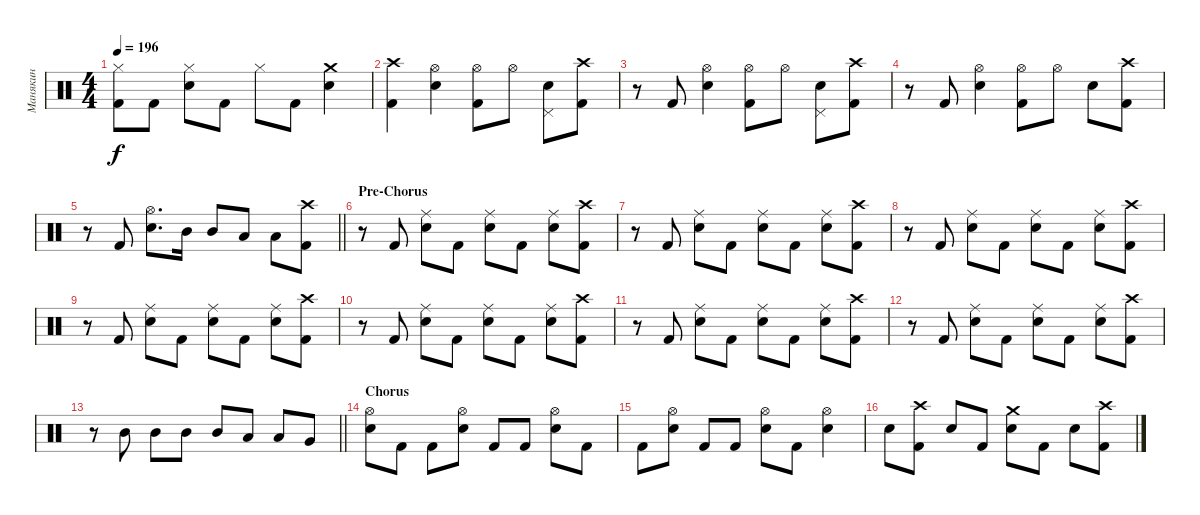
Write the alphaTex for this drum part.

\track ("Манякин" "Манякин") {instrument percussion}
\staff {score}
\articulation defaults
\ts (4 4)
\tempo 196
\clef neutral
\ks c
("Hi-Hat (closed)" "Kick (hit) 2").8{dy f} "Kick (hit) 2".8 ("Hi-Hat (closed)" "Electric Snare (hit)").8 "Kick (hit) 2".8 "Hi-Hat (closed)".8 "Kick (hit) 2".8 ("Crash medium (hit)" "Electric Snare (hit)").4 |
("Crash high (hit)" "Kick (hit) 2").4 ("Hi-Hat (open)" "Electric Snare (hit)").4 ("Hi-Hat (open)" "Kick (hit) 2").8 "Hi-Hat (open)".8 ("Electric Snare (hit)" "Pedal Hi-Hat (hit)").8 ("Crash high (hit)" "Kick (hit) 2").8 |
r.8 "Kick (hit) 2".8 ("Hi-Hat (open)" "Electric Snare (hit)").4 ("Hi-Hat (open)" "Kick (hit) 2").8 "Hi-Hat (open)".8 ("Electric Snare (hit)" "Pedal Hi-Hat (hit)").8 ("Crash high (hit)" "Kick (hit) 2").8 |
r.8 "Kick (hit) 2".8 ("Hi-Hat (open)" "Electric Snare (hit)").4 ("Hi-Hat (open)" "Kick (hit) 2").8 "Hi-Hat (open)".8 "Electric Snare (hit)".8 ("Crash high (hit)" "Kick (hit) 2").8 |
\barLineRight lightlight
r.8 "Kick (hit) 2".8 ("Hi-Hat (open)" "Electric Snare (hit)").8{d} "Mid Tom (hit)".16 "Mid Tom (hit)".8 "Low Tom (hit)".8 "Low Tom (hit)".8 ("Crash high (hit)" "Kick (hit) 2").8 |
\section ("" "Pre-Chorus")
r.8 "Kick (hit) 2".8 ("Ride (middle)" "Electric Snare (hit)").8 "Kick (hit) 2".8 ("Ride (middle)" "Electric Snare (hit)").8 "Kick (hit) 2".8 ("Ride (middle)" "Electric Snare (hit)").8 ("Crash high (hit)" "Kick (hit) 2").8 |
r.8 "Kick (hit) 2".8 ("Ride (middle)" "Electric Snare (hit)").8 "Kick (hit) 2".8 ("Ride (middle)" "Electric Snare (hit)").8 "Kick (hit) 2".8 ("Ride (middle)" "Electric Snare (hit)").8 ("Crash high (hit)" "Kick (hit) 2").8 |
r.8 "Kick (hit) 2".8 ("Ride (middle)" "Electric Snare (hit)").8 "Kick (hit) 2".8 ("Ride (middle)" "Electric Snare (hit)").8 "Kick (hit) 2".8 ("Ride (middle)" "Electric Snare (hit)").8 ("Crash high (hit)" "Kick (hit) 2").8 |
r.8 "Kick (hit) 2".8 ("Ride (middle)" "Electric Snare (hit)").8 "Kick (hit) 2".8 ("Ride (middle)" "Electric Snare (hit)").8 "Kick (hit) 2".8 ("Ride (middle)" "Electric Snare (hit)").8 ("Crash high (hit)" "Kick (hit) 2").8 |
r.8 "Kick (hit) 2".8 ("Ride (middle)" "Electric Snare (hit)").8 "Kick (hit) 2".8 ("Ride (middle)" "Electric Snare (hit)").8 "Kick (hit) 2".8 ("Ride (middle)" "Electric Snare (hit)").8 ("Crash high (hit)" "Kick (hit) 2").8 |
r.8 "Kick (hit) 2".8 ("Ride (middle)" "Electric Snare (hit)").8 "Kick (hit) 2".8 ("Ride (middle)" "Electric Snare (hit)").8 "Kick (hit) 2".8 ("Ride (middle)" "Electric Snare (hit)").8 ("Crash high (hit)" "Kick (hit) 2").8 |
r.8 "Kick (hit) 2".8 ("Ride (middle)" "Electric Snare (hit)").8 "Kick (hit) 2".8 ("Ride (middle)" "Electric Snare (hit)").8 "Kick (hit) 2".8 ("Ride (middle)" "Electric Snare (hit)").8 ("Crash high (hit)" "Kick (hit) 2").8 |
\barLineRight lightlight
r.8 "Mid Tom (hit)".8 "Mid Tom (hit)".8 "Mid Tom (hit)".8 "Mid Tom (hit)".8 "Low Tom (hit)".8 "Low Tom (hit)".8 "Very Low Tom (hit)".8 |
\section ("" "Chorus")
("Hi-Hat (open)" "Electric Snare (hit)").8 "Kick (hit) 2".8 "Kick (hit) 2".8 ("Hi-Hat (open)" "Electric Snare (hit)").8 "Kick (hit) 2".8 "Kick (hit) 2".8 ("Hi-Hat (open)" "Electric Snare (hit)").8 "Kick (hit) 2".8 |
"Kick (hit) 2".8 ("Hi-Hat (open)" "Electric Snare (hit)").8 "Kick (hit) 2".8 "Kick (hit) 2".8 ("Hi-Hat (open)" "Electric Snare (hit)").8 "Kick (hit) 2".8 ("Hi-Hat (open)" "Electric Snare (hit)").4 |
"Electric Snare (hit)".8 ("Crash high (hit)" "Kick (hit) 2").8 "Electric Snare (hit)".8 "Kick (hit) 2".8 ("Crash medium (hit)" "Electric Snare (hit)").8 "Kick (hit) 2".8 "Electric Snare (hit)".8 ("Crash high (hit)" "Kick (hit) 2").8
